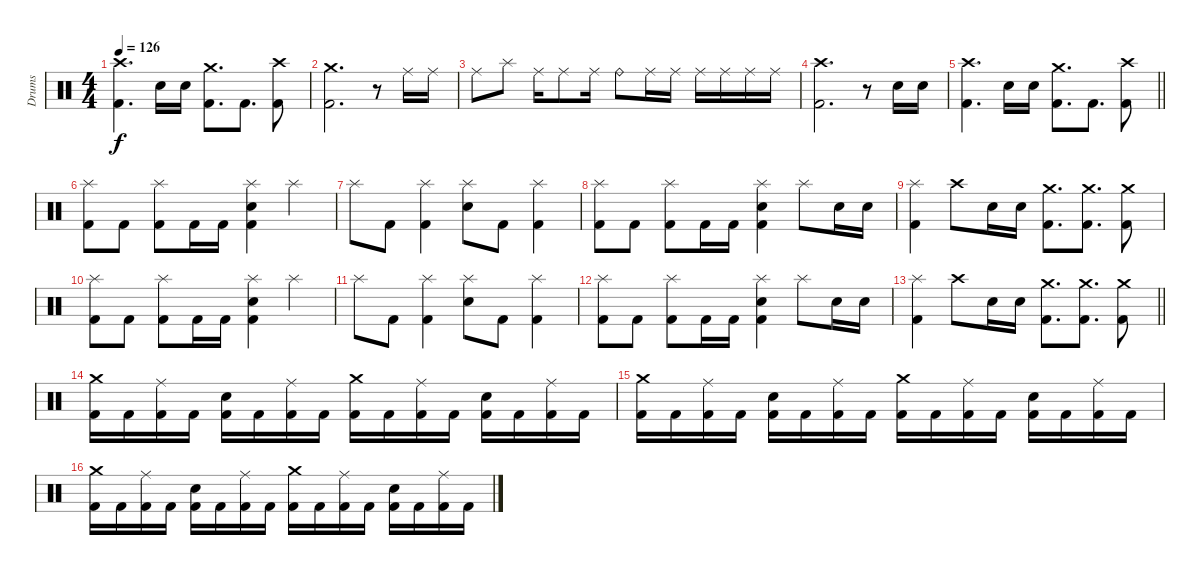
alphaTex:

\track ("Drums" "Drums") {instrument percussion}
\staff {score}
\articulation defaults
\ts (4 4)
\tempo 126
\clef neutral
\ks c
("Crash high (hit)" "Kick (hit) 2").4{d dy f} "Electric Snare (hit)".16 "Electric Snare (hit)".16 ("Crash medium (hit)" "Kick (hit) 2").8{d} "Kick (hit) 2".8{d} ("Crash high (hit)" "Kick (hit) 2").8 |
("Crash medium (hit)" "Kick (hit) 2").2{d} r.8 "Ride (middle)".16 "Ride (middle)".16 |
"Ride (middle)".8 "Splash (hit)".8 "Ride (middle)".16 "Ride (middle)".8 "Ride (middle)".16 "Ride (bell)".8 "Ride (middle)".16 "Ride (middle)".16 "Ride (middle)".16 "Ride (middle)".16 "Ride (middle)".16 "Ride (middle)".16 |
("Crash high (hit)" "Kick (hit) 2").2{d} r.8 "Electric Snare (hit)".16 "Electric Snare (hit)".16 |
\barLineRight lightlight
("Crash high (hit)" "Kick (hit) 2").4{d} "Electric Snare (hit)".16 "Electric Snare (hit)".16 ("Crash medium (hit)" "Kick (hit) 2").8{d} "Kick (hit) 2".8{d} ("Crash high (hit)" "Kick (hit) 2").8 |
\section ("" "")
("Splash (hit)" "Kick (hit) 2").8 "Kick (hit) 2".8 ("Splash (hit)" "Kick (hit) 2").8 "Kick (hit) 2".16 "Kick (hit) 2".16 ("Splash (hit)" "Electric Snare (hit)" "Kick (hit) 2").4 "Splash (hit)".4 |
"Splash (hit)".8 "Kick (hit) 2".8 ("Splash (hit)" "Kick (hit) 2").4 ("Splash (hit)" "Electric Snare (hit)").8 "Kick (hit) 2".8 ("Splash (hit)" "Kick (hit) 2").4 |
("Splash (hit)" "Kick (hit) 2").8 "Kick (hit) 2".8 ("Splash (hit)" "Kick (hit) 2").8 "Kick (hit) 2".16 "Kick (hit) 2".16 ("Splash (hit)" "Electric Snare (hit)" "Kick (hit) 2").4 "Splash (hit)".8 "Electric Snare (hit)".16 "Electric Snare (hit)".16 |
("Splash (hit)" "Kick (hit) 2").4 "Crash high (hit)".8 "Electric Snare (hit)".16 "Electric Snare (hit)".16 ("Crash medium (hit)" "Kick (hit) 2").8{d} ("Crash medium (hit)" "Kick (hit) 2").8{d} ("Crash medium (hit)" "Kick (hit) 2").8 |
("Splash (hit)" "Kick (hit) 2").8 "Kick (hit) 2".8 ("Splash (hit)" "Kick (hit) 2").8 "Kick (hit) 2".16 "Kick (hit) 2".16 ("Splash (hit)" "Electric Snare (hit)" "Kick (hit) 2").4 "Splash (hit)".4 |
"Splash (hit)".8 "Kick (hit) 2".8 ("Splash (hit)" "Kick (hit) 2").4 ("Splash (hit)" "Electric Snare (hit)").8 "Kick (hit) 2".8 ("Splash (hit)" "Kick (hit) 2").4 |
("Splash (hit)" "Kick (hit) 2").8 "Kick (hit) 2".8 ("Splash (hit)" "Kick (hit) 2").8 "Kick (hit) 2".16 "Kick (hit) 2".16 ("Splash (hit)" "Electric Snare (hit)" "Kick (hit) 2").4 "Splash (hit)".8 "Electric Snare (hit)".16 "Electric Snare (hit)".16 |
\barLineRight lightlight
("Splash (hit)" "Kick (hit) 2").4 "Crash high (hit)".8 "Electric Snare (hit)".16 "Electric Snare (hit)".16 ("Crash medium (hit)" "Kick (hit) 2").8{d} ("Crash medium (hit)" "Kick (hit) 2").8{d} ("Crash medium (hit)" "Kick (hit) 2").8 |
\section ("" "")
("Crash medium (hit)" "Kick (hit) 2").16 "Kick (hit) 2".16 ("Ride (middle)" "Kick (hit) 2").16 "Kick (hit) 2".16 ("Electric Snare (hit)" "Kick (hit) 2").16 "Kick (hit) 2".16 ("Ride (middle)" "Kick (hit) 2").16 "Kick (hit) 2".16 ("Crash medium (hit)" "Kick (hit) 2").16 "Kick (hit) 2".16 ("Ride (middle)" "Kick (hit) 2").16 "Kick (hit) 2".16 ("Electric Snare (hit)" "Kick (hit) 2").16 "Kick (hit) 2".16 ("Ride (middle)" "Kick (hit) 2").16 "Kick (hit) 2".16 |
("Crash medium (hit)" "Kick (hit) 2").16 "Kick (hit) 2".16 ("Ride (middle)" "Kick (hit) 2").16 "Kick (hit) 2".16 ("Electric Snare (hit)" "Kick (hit) 2").16 "Kick (hit) 2".16 ("Ride (middle)" "Kick (hit) 2").16 "Kick (hit) 2".16 ("Crash medium (hit)" "Kick (hit) 2").16 "Kick (hit) 2".16 ("Ride (middle)" "Kick (hit) 2").16 "Kick (hit) 2".16 ("Electric Snare (hit)" "Kick (hit) 2").16 "Kick (hit) 2".16 ("Ride (middle)" "Kick (hit) 2").16 "Kick (hit) 2".16 |
("Crash medium (hit)" "Kick (hit) 2").16 "Kick (hit) 2".16 ("Ride (middle)" "Kick (hit) 2").16 "Kick (hit) 2".16 ("Electric Snare (hit)" "Kick (hit) 2").16 "Kick (hit) 2".16 ("Ride (middle)" "Kick (hit) 2").16 "Kick (hit) 2".16 ("Crash medium (hit)" "Kick (hit) 2").16 "Kick (hit) 2".16 ("Ride (middle)" "Kick (hit) 2").16 "Kick (hit) 2".16 ("Electric Snare (hit)" "Kick (hit) 2").16 "Kick (hit) 2".16 ("Ride (middle)" "Kick (hit) 2").16 "Kick (hit) 2".16
